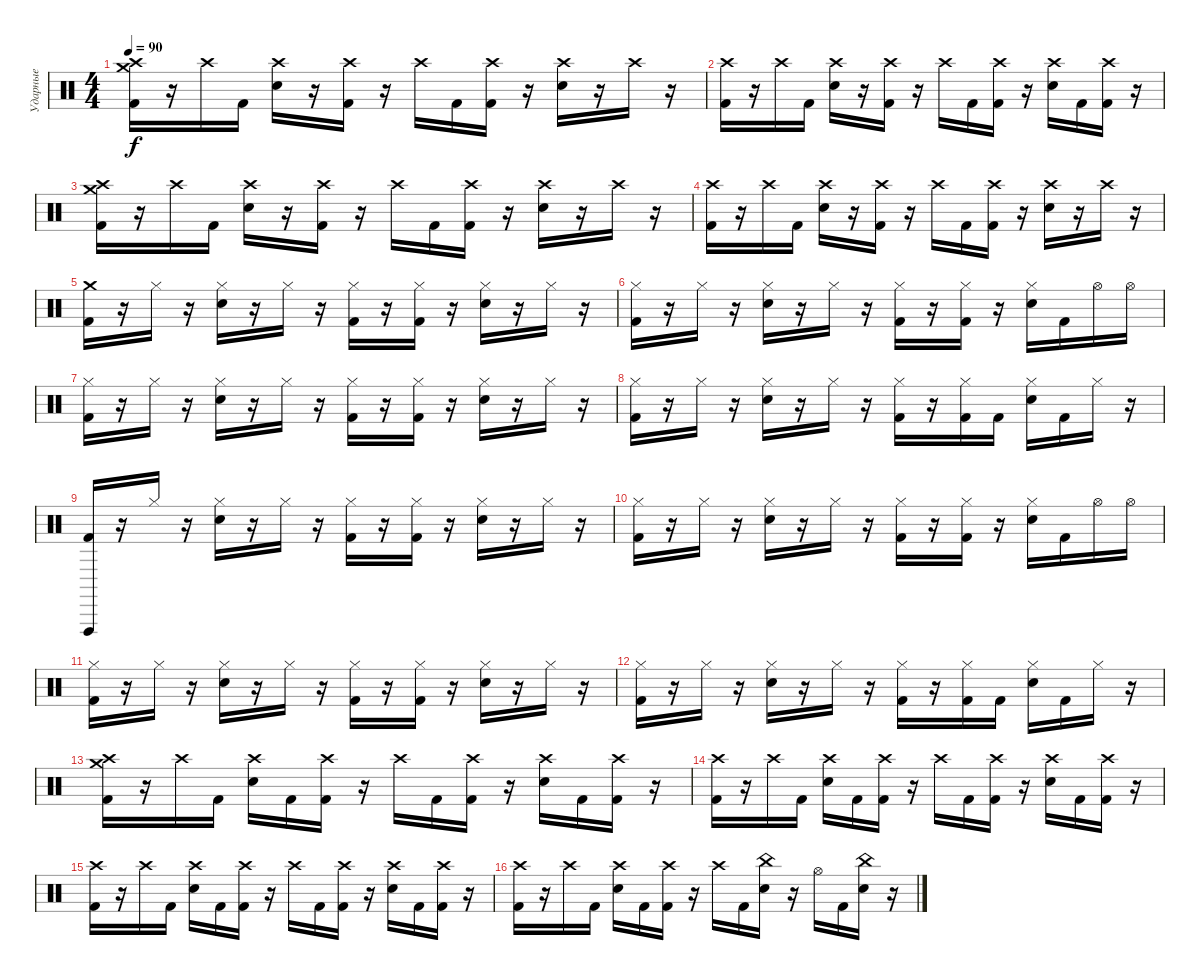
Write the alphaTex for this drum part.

\track ("Ударные" "Ударные") {instrument percussion}
\staff {score}
\articulation defaults
\ts (4 4)
\tempo 90
\clef neutral
\ks c
("Crash high (hit)" "Crash medium (hit)" "Kick (hit) 2").16{dy f} r.16 "Crash high (hit)".16 "Kick (hit) 2".16 ("Crash high (hit)" "Electric Snare (hit)").16 r.16 ("Crash high (hit)" "Kick (hit) 2").16 r.16 "Crash high (hit)".16 "Kick (hit) 2".16 ("Crash high (hit)" "Kick (hit) 2").16 r.16 ("Crash high (hit)" "Electric Snare (hit)").16 r.16 "Crash high (hit)".16 r.16 |
("Crash high (hit)" "Kick (hit) 2").16 r.16 "Crash high (hit)".16 "Kick (hit) 2".16 ("Crash high (hit)" "Electric Snare (hit)").16 r.16 ("Crash high (hit)" "Kick (hit) 2").16 r.16 "Crash high (hit)".16 "Kick (hit) 2".16 ("Crash high (hit)" "Kick (hit) 2").16 r.16 ("Crash high (hit)" "Electric Snare (hit)").16 "Kick (hit) 2".16 ("Crash high (hit)" "Kick (hit) 2").16 r.16 |
("Crash high (hit)" "Crash medium (hit)" "Kick (hit) 2").16 r.16 "Crash high (hit)".16 "Kick (hit) 2".16 ("Crash high (hit)" "Electric Snare (hit)").16 r.16 ("Crash high (hit)" "Kick (hit) 2").16 r.16 "Crash high (hit)".16 "Kick (hit) 2".16 ("Crash high (hit)" "Kick (hit) 2").16 r.16 ("Crash high (hit)" "Electric Snare (hit)").16 r.16 "Crash high (hit)".16 r.16 |
("Crash high (hit)" "Kick (hit) 2").16 r.16 "Crash high (hit)".16 "Kick (hit) 2".16 ("Crash high (hit)" "Electric Snare (hit)").16 r.16 ("Crash high (hit)" "Kick (hit) 2").16 r.16 "Crash high (hit)".16 "Kick (hit) 2".16 ("Crash high (hit)" "Kick (hit) 2").16 r.16 ("Crash high (hit)" "Electric Snare (hit)").16 r.16 "Crash high (hit)".16 r.16 |
("Crash medium (hit)" "Kick (hit) 2").16 r.16 "Hi-Hat (closed)".16 r.16 ("Hi-Hat (closed)" "Electric Snare (hit)").16 r.16 "Hi-Hat (closed)".16 r.16 ("Hi-Hat (closed)" "Kick (hit) 2").16 r.16 ("Hi-Hat (closed)" "Kick (hit) 2").16 r.16 ("Hi-Hat (closed)" "Electric Snare (hit)").16 r.16 "Hi-Hat (closed)".16 r.16 |
("Hi-Hat (closed)" "Kick (hit) 2").16 r.16 "Hi-Hat (closed)".16 r.16 ("Hi-Hat (closed)" "Electric Snare (hit)").16 r.16 "Hi-Hat (closed)".16 r.16 ("Hi-Hat (closed)" "Kick (hit) 2").16 r.16 ("Hi-Hat (closed)" "Kick (hit) 2").16 r.16 ("Hi-Hat (closed)" "Electric Snare (hit)").16 "Kick (hit) 2".16 "Hi-Hat (open)".16 "Hi-Hat (open)".16 |
("Hi-Hat (closed)" "Kick (hit) 2").16 r.16 "Hi-Hat (closed)".16 r.16 ("Hi-Hat (closed)" "Electric Snare (hit)").16 r.16 "Hi-Hat (closed)".16 r.16 ("Hi-Hat (closed)" "Kick (hit) 2").16 r.16 ("Hi-Hat (closed)" "Kick (hit) 2").16 r.16 ("Hi-Hat (closed)" "Electric Snare (hit)").16 r.16 "Hi-Hat (closed)".16 r.16 |
("Hi-Hat (closed)" "Kick (hit) 2").16 r.16 "Hi-Hat (closed)".16 r.16 ("Hi-Hat (closed)" "Electric Snare (hit)").16 r.16 "Hi-Hat (closed)".16 r.16 ("Hi-Hat (closed)" "Kick (hit) 2").16 r.16 ("Hi-Hat (closed)" "Kick (hit) 2").16 "Kick (hit) 2".16 ("Hi-Hat (closed)" "Electric Snare (hit)").16 "Kick (hit) 2".16 "Hi-Hat (closed)".16 r.16 |
("Vibraslap (hit)" "Kick (hit) 2").16 r.16 "Hi-Hat (closed)".16 r.16 ("Hi-Hat (closed)" "Electric Snare (hit)").16 r.16 "Hi-Hat (closed)".16 r.16 ("Hi-Hat (closed)" "Kick (hit) 2").16 r.16 ("Hi-Hat (closed)" "Kick (hit) 2").16 r.16 ("Hi-Hat (closed)" "Electric Snare (hit)").16 r.16 "Hi-Hat (closed)".16 r.16 |
("Hi-Hat (closed)" "Kick (hit) 2").16 r.16 "Hi-Hat (closed)".16 r.16 ("Hi-Hat (closed)" "Electric Snare (hit)").16 r.16 "Hi-Hat (closed)".16 r.16 ("Hi-Hat (closed)" "Kick (hit) 2").16 r.16 ("Hi-Hat (closed)" "Kick (hit) 2").16 r.16 ("Hi-Hat (closed)" "Electric Snare (hit)").16 "Kick (hit) 2".16 "Hi-Hat (open)".16 "Hi-Hat (open)".16 |
("Hi-Hat (closed)" "Kick (hit) 2").16 r.16 "Hi-Hat (closed)".16 r.16 ("Hi-Hat (closed)" "Electric Snare (hit)").16 r.16 "Hi-Hat (closed)".16 r.16 ("Hi-Hat (closed)" "Kick (hit) 2").16 r.16 ("Hi-Hat (closed)" "Kick (hit) 2").16 r.16 ("Hi-Hat (closed)" "Electric Snare (hit)").16 r.16 "Hi-Hat (closed)".16 r.16 |
("Hi-Hat (closed)" "Kick (hit) 2").16 r.16 "Hi-Hat (closed)".16 r.16 ("Hi-Hat (closed)" "Electric Snare (hit)").16 r.16 "Hi-Hat (closed)".16 r.16 ("Hi-Hat (closed)" "Kick (hit) 2").16 r.16 ("Hi-Hat (closed)" "Kick (hit) 2").16 "Kick (hit) 2".16 ("Hi-Hat (closed)" "Electric Snare (hit)").16 "Kick (hit) 2".16 "Hi-Hat (closed)".16 r.16 |
("Crash high (hit)" "Crash medium (hit)" "Kick (hit) 2").16 r.16 "Crash high (hit)".16 "Kick (hit) 2".16 ("Crash high (hit)" "Electric Snare (hit)").16 "Kick (hit) 2".16 ("Crash high (hit)" "Kick (hit) 2").16 r.16 "Crash high (hit)".16 "Kick (hit) 2".16 ("Crash high (hit)" "Kick (hit) 2").16 r.16 ("Crash high (hit)" "Electric Snare (hit)").16 "Kick (hit) 2".16 ("Crash high (hit)" "Kick (hit) 2").16 r.16 |
("Crash high (hit)" "Kick (hit) 2").16 r.16 "Crash high (hit)".16 "Kick (hit) 2".16 ("Crash high (hit)" "Electric Snare (hit)").16 "Kick (hit) 2".16 ("Crash high (hit)" "Kick (hit) 2").16 r.16 "Crash high (hit)".16 "Kick (hit) 2".16 ("Crash high (hit)" "Kick (hit) 2").16 r.16 ("Crash high (hit)" "Electric Snare (hit)").16 "Kick (hit) 2".16 ("Crash high (hit)" "Kick (hit) 2").16 r.16 |
("Crash high (hit)" "Kick (hit) 2").16 r.16 "Crash high (hit)".16 "Kick (hit) 2".16 ("Crash high (hit)" "Electric Snare (hit)").16 "Kick (hit) 2".16 ("Crash high (hit)" "Kick (hit) 2").16 r.16 "Crash high (hit)".16 "Kick (hit) 2".16 ("Crash high (hit)" "Kick (hit) 2").16 r.16 ("Crash high (hit)" "Electric Snare (hit)").16 "Kick (hit) 2".16 ("Crash high (hit)" "Kick (hit) 2").16 r.16 |
("Crash high (hit)" "Kick (hit) 2").16 r.16 "Crash high (hit)".16 "Kick (hit) 2".16 ("Crash high (hit)" "Electric Snare (hit)").16 "Kick (hit) 2".16 ("Crash high (hit)" "Kick (hit) 2").16 r.16 "Crash high (hit)".16 "Kick (hit) 2".16 ("China (hit)" "Electric Snare (hit)").16 r.16 "Hi-Hat (open)".16 "Kick (hit) 2".16 ("China (hit)" "Electric Snare (hit)").16 r.16
